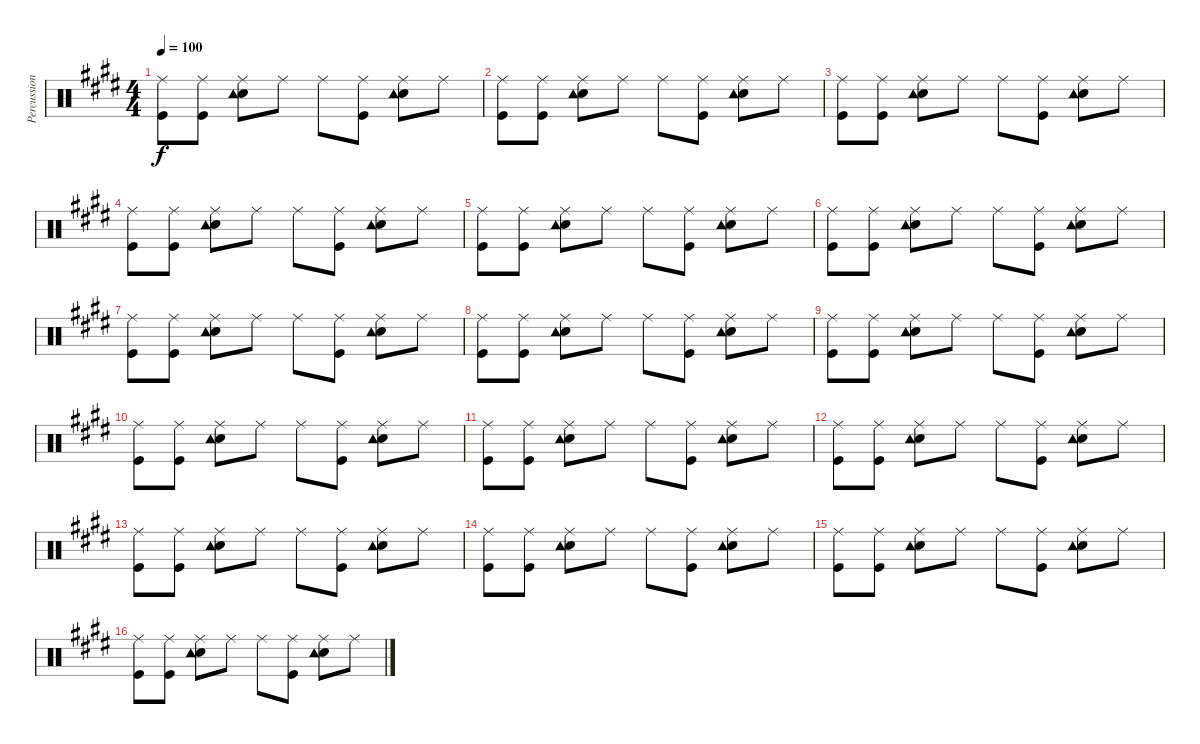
\track ("Percussions" "Percussion") {instrument percussion}
\staff {score}
\articulation defaults
\ts (4 4)
\tempo 100
\clef neutral
\ks e
("Ride (middle)" "Kick (hit)").8{dy f} ("Ride (middle)" "Kick (hit)").8 ("Ride (middle)" "Snare (hit) 2" "Tambourine (hit)").8 "Ride (middle)".8 "Ride (middle)".8 ("Ride (middle)" "Kick (hit)").8 ("Ride (middle)" "Snare (hit) 2" "Tambourine (hit)").8 "Ride (middle)".8 |
("Ride (middle)" "Kick (hit)").8 ("Ride (middle)" "Kick (hit)").8 ("Ride (middle)" "Snare (hit) 2" "Tambourine (hit)").8 "Ride (middle)".8 "Ride (middle)".8 ("Ride (middle)" "Kick (hit)").8 ("Ride (middle)" "Snare (hit) 2" "Tambourine (hit)").8 "Ride (middle)".8 |
("Ride (middle)" "Kick (hit)").8 ("Ride (middle)" "Kick (hit)").8 ("Ride (middle)" "Snare (hit) 2" "Tambourine (hit)").8 "Ride (middle)".8 "Ride (middle)".8 ("Ride (middle)" "Kick (hit)").8 ("Ride (middle)" "Snare (hit) 2" "Tambourine (hit)").8 "Ride (middle)".8 |
("Ride (middle)" "Kick (hit)").8 ("Ride (middle)" "Kick (hit)").8 ("Ride (middle)" "Snare (hit) 2" "Tambourine (hit)").8 "Ride (middle)".8 "Ride (middle)".8 ("Ride (middle)" "Kick (hit)").8 ("Ride (middle)" "Snare (hit) 2" "Tambourine (hit)").8 "Ride (middle)".8 |
("Ride (middle)" "Kick (hit)").8 ("Ride (middle)" "Kick (hit)").8 ("Ride (middle)" "Snare (hit) 2" "Tambourine (hit)").8 "Ride (middle)".8 "Ride (middle)".8 ("Ride (middle)" "Kick (hit)").8 ("Ride (middle)" "Snare (hit) 2" "Tambourine (hit)").8 "Ride (middle)".8 |
("Ride (middle)" "Kick (hit)").8 ("Ride (middle)" "Kick (hit)").8 ("Ride (middle)" "Snare (hit) 2" "Tambourine (hit)").8 "Ride (middle)".8 "Ride (middle)".8 ("Ride (middle)" "Kick (hit)").8 ("Ride (middle)" "Snare (hit) 2" "Tambourine (hit)").8 "Ride (middle)".8 |
("Ride (middle)" "Kick (hit)").8 ("Ride (middle)" "Kick (hit)").8 ("Ride (middle)" "Snare (hit) 2" "Tambourine (hit)").8 "Ride (middle)".8 "Ride (middle)".8 ("Ride (middle)" "Kick (hit)").8 ("Ride (middle)" "Snare (hit) 2" "Tambourine (hit)").8 "Ride (middle)".8 |
("Ride (middle)" "Kick (hit)").8 ("Ride (middle)" "Kick (hit)").8 ("Ride (middle)" "Snare (hit) 2" "Tambourine (hit)").8 "Ride (middle)".8 "Ride (middle)".8 ("Ride (middle)" "Kick (hit)").8 ("Ride (middle)" "Snare (hit) 2" "Tambourine (hit)").8 "Ride (middle)".8 |
("Ride (middle)" "Kick (hit)").8 ("Ride (middle)" "Kick (hit)").8 ("Ride (middle)" "Snare (hit) 2" "Tambourine (hit)").8 "Ride (middle)".8 "Ride (middle)".8 ("Ride (middle)" "Kick (hit)").8 ("Ride (middle)" "Snare (hit) 2" "Tambourine (hit)").8 "Ride (middle)".8 |
("Ride (middle)" "Kick (hit)").8 ("Ride (middle)" "Kick (hit)").8 ("Ride (middle)" "Snare (hit) 2" "Tambourine (hit)").8 "Ride (middle)".8 "Ride (middle)".8 ("Ride (middle)" "Kick (hit)").8 ("Ride (middle)" "Snare (hit) 2" "Tambourine (hit)").8 "Ride (middle)".8 |
("Ride (middle)" "Kick (hit)").8 ("Ride (middle)" "Kick (hit)").8 ("Ride (middle)" "Snare (hit) 2" "Tambourine (hit)").8 "Ride (middle)".8 "Ride (middle)".8 ("Ride (middle)" "Kick (hit)").8 ("Ride (middle)" "Snare (hit) 2" "Tambourine (hit)").8 "Ride (middle)".8 |
("Ride (middle)" "Kick (hit)").8 ("Ride (middle)" "Kick (hit)").8 ("Ride (middle)" "Snare (hit) 2" "Tambourine (hit)").8 "Ride (middle)".8 "Ride (middle)".8 ("Ride (middle)" "Kick (hit)").8 ("Ride (middle)" "Snare (hit) 2" "Tambourine (hit)").8 "Ride (middle)".8 |
("Ride (middle)" "Kick (hit)").8 ("Ride (middle)" "Kick (hit)").8 ("Ride (middle)" "Snare (hit) 2" "Tambourine (hit)").8 "Ride (middle)".8 "Ride (middle)".8 ("Ride (middle)" "Kick (hit)").8 ("Ride (middle)" "Snare (hit) 2" "Tambourine (hit)").8 "Ride (middle)".8 |
("Ride (middle)" "Kick (hit)").8 ("Ride (middle)" "Kick (hit)").8 ("Ride (middle)" "Snare (hit) 2" "Tambourine (hit)").8 "Ride (middle)".8 "Ride (middle)".8 ("Ride (middle)" "Kick (hit)").8 ("Ride (middle)" "Snare (hit) 2" "Tambourine (hit)").8 "Ride (middle)".8 |
("Ride (middle)" "Kick (hit)").8 ("Ride (middle)" "Kick (hit)").8 ("Ride (middle)" "Snare (hit) 2" "Tambourine (hit)").8 "Ride (middle)".8 "Ride (middle)".8 ("Ride (middle)" "Kick (hit)").8 ("Ride (middle)" "Snare (hit) 2" "Tambourine (hit)").8 "Ride (middle)".8 |
("Ride (middle)" "Kick (hit)").8 ("Ride (middle)" "Kick (hit)").8 ("Ride (middle)" "Snare (hit) 2" "Tambourine (hit)").8 "Ride (middle)".8 "Ride (middle)".8 ("Ride (middle)" "Kick (hit)").8 ("Ride (middle)" "Snare (hit) 2" "Tambourine (hit)").8 "Ride (middle)".8
